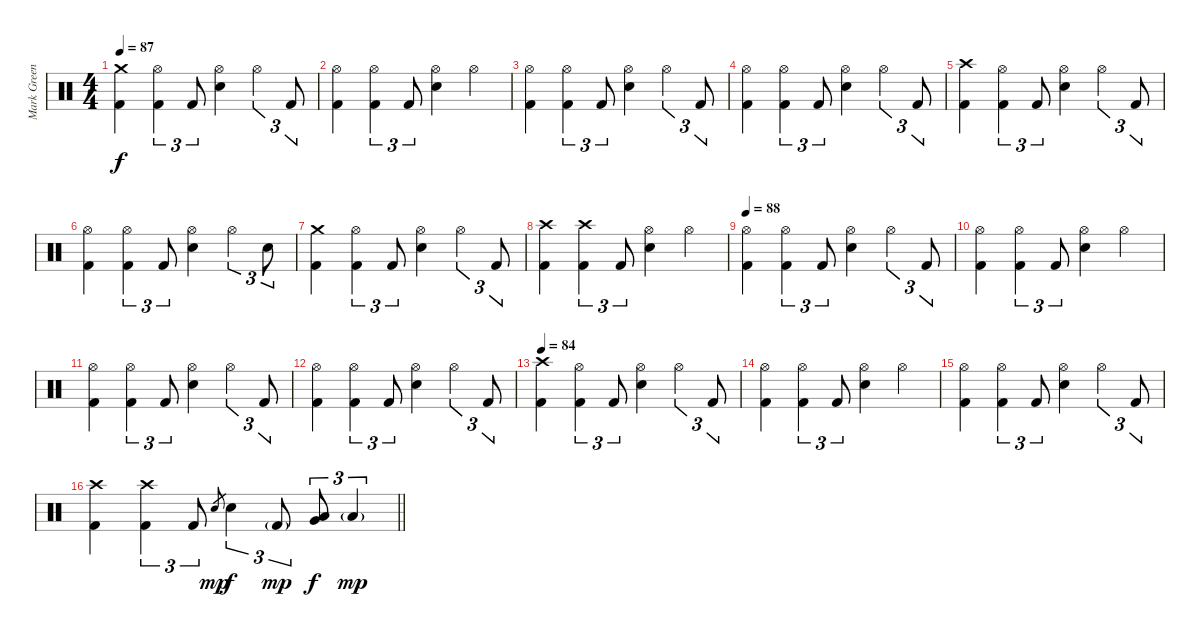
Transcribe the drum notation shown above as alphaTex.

\track ("Mark Greening" "Mark Green") {instrument percussion}
\staff {score}
\articulation defaults
\ts (4 4)
\tempo 87
\clef neutral
\ks c
("Crash medium (hit)" "Kick (hit) 2").4{dy f} ("Hi-Hat (open)" "Kick (hit) 2").4{tu (3 2)} "Kick (hit) 2".8{tu (3 2)} ("Hi-Hat (open)" "Electric Snare (hit)").4 "Hi-Hat (open)".4{tu (3 2)} "Kick (hit) 2".8{tu (3 2)} |
("Hi-Hat (open)" "Kick (hit) 2").4 ("Hi-Hat (open)" "Kick (hit) 2").4{tu (3 2)} "Kick (hit) 2".8{tu (3 2)} ("Hi-Hat (open)" "Electric Snare (hit)").4 "Hi-Hat (open)".4 |
("Hi-Hat (open)" "Kick (hit) 2").4 ("Hi-Hat (open)" "Kick (hit) 2").4{tu (3 2)} "Kick (hit) 2".8{tu (3 2)} ("Hi-Hat (open)" "Electric Snare (hit)").4 "Hi-Hat (open)".4{tu (3 2)} "Kick (hit) 2".8{tu (3 2)} |
("Hi-Hat (open)" "Kick (hit) 2").4 ("Hi-Hat (open)" "Kick (hit) 2").4{tu (3 2)} "Kick (hit) 2".8{tu (3 2)} ("Hi-Hat (open)" "Electric Snare (hit)").4 "Hi-Hat (open)".4{tu (3 2)} "Kick (hit) 2".8{tu (3 2)} |
("Crash high (hit)" "Kick (hit) 2").4 ("Hi-Hat (open)" "Kick (hit) 2").4{tu (3 2)} "Kick (hit) 2".8{tu (3 2)} ("Hi-Hat (open)" "Electric Snare (hit)").4 "Hi-Hat (open)".4{tu (3 2)} "Kick (hit) 2".8{tu (3 2)} |
("Hi-Hat (open)" "Kick (hit) 2").4 ("Hi-Hat (open)" "Kick (hit) 2").4{tu (3 2)} "Kick (hit) 2".8{tu (3 2)} ("Hi-Hat (open)" "Electric Snare (hit)").4 "Hi-Hat (open)".4{tu (3 2)} "Electric Snare (hit)".8{tu (3 2)} |
("Crash medium (hit)" "Kick (hit) 2").4 ("Hi-Hat (open)" "Kick (hit) 2").4{tu (3 2)} "Kick (hit) 2".8{tu (3 2)} ("Hi-Hat (open)" "Electric Snare (hit)").4 "Hi-Hat (open)".4{tu (3 2)} "Kick (hit) 2".8{tu (3 2)} |
("Crash high (hit)" "Kick (hit) 2").4 ("Crash high (hit)" "Kick (hit) 2").4{tu (3 2)} "Kick (hit) 2".8{tu (3 2)} ("Hi-Hat (open)" "Electric Snare (hit)").4 "Hi-Hat (open)".4 |
\tempo 88
("Hi-Hat (open)" "Kick (hit) 2").4 ("Hi-Hat (open)" "Kick (hit) 2").4{tu (3 2)} "Kick (hit) 2".8{tu (3 2)} ("Hi-Hat (open)" "Electric Snare (hit)").4 "Hi-Hat (open)".4{tu (3 2)} "Kick (hit) 2".8{tu (3 2)} |
("Hi-Hat (open)" "Kick (hit) 2").4 ("Hi-Hat (open)" "Kick (hit) 2").4{tu (3 2)} "Kick (hit) 2".8{tu (3 2)} ("Hi-Hat (open)" "Electric Snare (hit)").4 "Hi-Hat (open)".4 |
("Hi-Hat (open)" "Kick (hit) 2").4 ("Hi-Hat (open)" "Kick (hit) 2").4{tu (3 2)} "Kick (hit) 2".8{tu (3 2)} ("Hi-Hat (open)" "Electric Snare (hit)").4 "Hi-Hat (open)".4{tu (3 2)} "Kick (hit) 2".8{tu (3 2)} |
("Hi-Hat (open)" "Kick (hit) 2").4 ("Hi-Hat (open)" "Kick (hit) 2").4{tu (3 2)} "Kick (hit) 2".8{tu (3 2)} ("Hi-Hat (open)" "Electric Snare (hit)").4 "Hi-Hat (open)".4{tu (3 2)} "Kick (hit) 2".8{tu (3 2)} |
\tempo 84
("Crash high (hit)" "Kick (hit) 2").4 ("Hi-Hat (open)" "Kick (hit) 2").4{tu (3 2)} "Kick (hit) 2".8{tu (3 2)} ("Hi-Hat (open)" "Electric Snare (hit)").4 "Hi-Hat (open)".4{tu (3 2)} "Kick (hit) 2".8{tu (3 2)} |
("Hi-Hat (open)" "Kick (hit) 2").4 ("Hi-Hat (open)" "Kick (hit) 2").4{tu (3 2)} "Kick (hit) 2".8{tu (3 2)} ("Hi-Hat (open)" "Electric Snare (hit)").4 "Hi-Hat (open)".4 |
("Hi-Hat (open)" "Kick (hit) 2").4 ("Hi-Hat (open)" "Kick (hit) 2").4{tu (3 2)} "Kick (hit) 2".8{tu (3 2)} ("Hi-Hat (open)" "Electric Snare (hit)").4 "Hi-Hat (open)".4{tu (3 2)} "Kick (hit) 2".8{tu (3 2)} |
\barLineRight lightlight
("Crash high (hit)" "Kick (hit) 2").4 ("Crash high (hit)" "Kick (hit) 2").4{tu (3 2)} "Kick (hit) 2".8{tu (3 2)} "Electric Snare (hit)".8{gr dy mp} "Electric Snare (hit)".4{tu (3 2) dy f} "Kick (hit) 2"{g}.8{tu (3 2) dy mp} ("Very Low Tom (hit)" "Low Floor Tom (hit)").8{tu (3 2) dy f} "Low Floor Tom (hit)"{g}.4{tu (3 2) dy mp}
